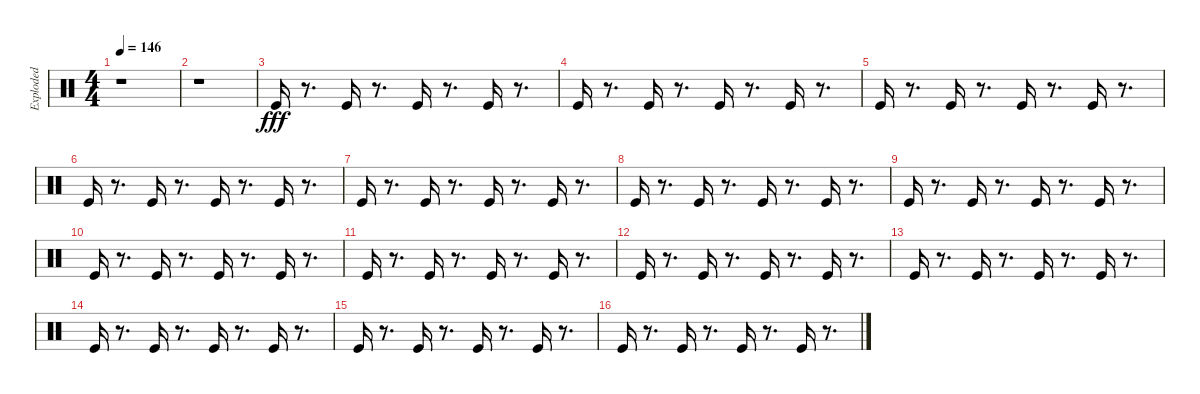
\track ("Exploded" "Exploded") {instrument percussion}
\staff {score}
\articulation defaults
\ts (4 4)
\tempo 146
\clef neutral
\ks c
r.1{dy fff} |
r.1 |
"Kick (hit)".16 r.8{d} "Kick (hit)".16 r.8{d} "Kick (hit)".16 r.8{d} "Kick (hit)".16 r.8{d} |
"Kick (hit)".16 r.8{d} "Kick (hit)".16 r.8{d} "Kick (hit)".16 r.8{d} "Kick (hit)".16 r.8{d} |
"Kick (hit)".16 r.8{d} "Kick (hit)".16 r.8{d} "Kick (hit)".16 r.8{d} "Kick (hit)".16 r.8{d} |
"Kick (hit)".16 r.8{d} "Kick (hit)".16 r.8{d} "Kick (hit)".16 r.8{d} "Kick (hit)".16 r.8{d} |
"Kick (hit)".16 r.8{d} "Kick (hit)".16 r.8{d} "Kick (hit)".16 r.8{d} "Kick (hit)".16 r.8{d} |
"Kick (hit)".16 r.8{d} "Kick (hit)".16 r.8{d} "Kick (hit)".16 r.8{d} "Kick (hit)".16 r.8{d} |
"Kick (hit)".16 r.8{d} "Kick (hit)".16 r.8{d} "Kick (hit)".16 r.8{d} "Kick (hit)".16 r.8{d} |
"Kick (hit)".16 r.8{d} "Kick (hit)".16 r.8{d} "Kick (hit)".16 r.8{d} "Kick (hit)".16 r.8{d} |
"Kick (hit)".16 r.8{d} "Kick (hit)".16 r.8{d} "Kick (hit)".16 r.8{d} "Kick (hit)".16 r.8{d} |
"Kick (hit)".16 r.8{d} "Kick (hit)".16 r.8{d} "Kick (hit)".16 r.8{d} "Kick (hit)".16 r.8{d} |
"Kick (hit)".16 r.8{d} "Kick (hit)".16 r.8{d} "Kick (hit)".16 r.8{d} "Kick (hit)".16 r.8{d} |
"Kick (hit)".16 r.8{d} "Kick (hit)".16 r.8{d} "Kick (hit)".16 r.8{d} "Kick (hit)".16 r.8{d} |
"Kick (hit)".16 r.8{d} "Kick (hit)".16 r.8{d} "Kick (hit)".16 r.8{d} "Kick (hit)".16 r.8{d} |
"Kick (hit)".16 r.8{d} "Kick (hit)".16 r.8{d} "Kick (hit)".16 r.8{d} "Kick (hit)".16 r.8{d}
